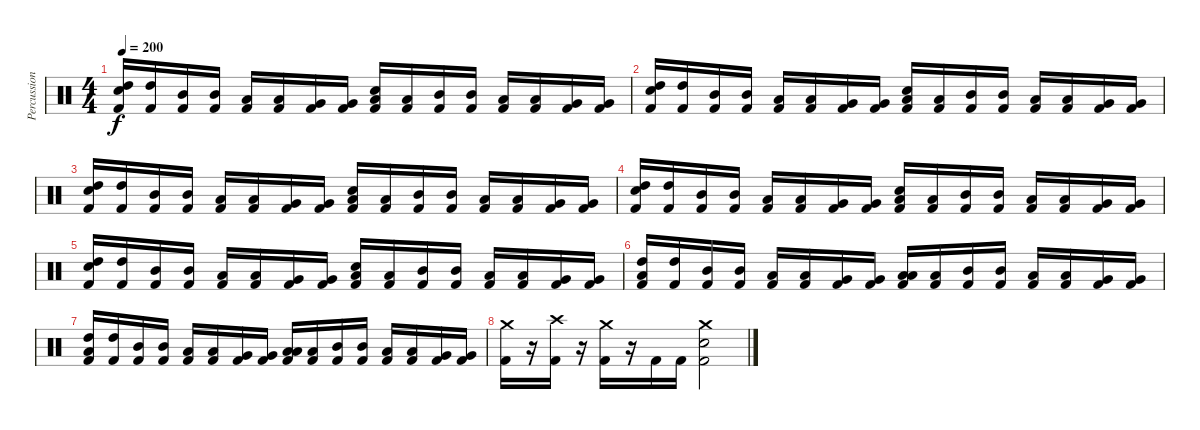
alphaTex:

\track ("Percussion" "Percussion") {instrument percussion}
\staff {score}
\articulation defaults
\ts (4 4)
\tempo 200
\clef neutral
\ks c
("High Tom (hit)" "Electric Snare (hit)" "Kick (hit) 2").16{dy f} ("High Tom (hit)" "Kick (hit) 2").16 ("Mid Tom (hit)" "Kick (hit) 2").16 ("Mid Tom (hit)" "Kick (hit) 2").16 ("Low Tom (hit)" "Kick (hit) 2").16 ("Low Tom (hit)" "Kick (hit) 2").16 ("Very Low Tom (hit)" "Kick (hit) 2").16 ("Very Low Tom (hit)" "Kick (hit) 2").16 ("Low Floor Tom (hit)" "Electric Snare (hit)" "Kick (hit) 2").16 ("Low Floor Tom (hit)" "Kick (hit) 2").16 ("Mid Tom (hit)" "Kick (hit) 2").16 ("Mid Tom (hit)" "Kick (hit) 2").16 ("Low Tom (hit)" "Kick (hit) 2").16 ("Low Tom (hit)" "Kick (hit) 2").16 ("Very Low Tom (hit)" "Kick (hit) 2").16 ("Very Low Tom (hit)" "Kick (hit) 2").16 |
("High Tom (hit)" "Electric Snare (hit)" "Kick (hit) 2").16 ("High Tom (hit)" "Kick (hit) 2").16 ("Mid Tom (hit)" "Kick (hit) 2").16 ("Mid Tom (hit)" "Kick (hit) 2").16 ("Low Tom (hit)" "Kick (hit) 2").16 ("Low Tom (hit)" "Kick (hit) 2").16 ("Very Low Tom (hit)" "Kick (hit) 2").16 ("Very Low Tom (hit)" "Kick (hit) 2").16 ("Low Floor Tom (hit)" "Electric Snare (hit)" "Kick (hit) 2").16 ("Low Floor Tom (hit)" "Kick (hit) 2").16 ("Mid Tom (hit)" "Kick (hit) 2").16 ("Mid Tom (hit)" "Kick (hit) 2").16 ("Low Tom (hit)" "Kick (hit) 2").16 ("Low Tom (hit)" "Kick (hit) 2").16 ("Very Low Tom (hit)" "Kick (hit) 2").16 ("Very Low Tom (hit)" "Kick (hit) 2").16 |
("High Tom (hit)" "Electric Snare (hit)" "Kick (hit) 2").16 ("High Tom (hit)" "Kick (hit) 2").16 ("Mid Tom (hit)" "Kick (hit) 2").16 ("Mid Tom (hit)" "Kick (hit) 2").16 ("Low Tom (hit)" "Kick (hit) 2").16 ("Low Tom (hit)" "Kick (hit) 2").16 ("Very Low Tom (hit)" "Kick (hit) 2").16 ("Very Low Tom (hit)" "Kick (hit) 2").16 ("Low Floor Tom (hit)" "Electric Snare (hit)" "Kick (hit) 2").16 ("Low Floor Tom (hit)" "Kick (hit) 2").16 ("Mid Tom (hit)" "Kick (hit) 2").16 ("Mid Tom (hit)" "Kick (hit) 2").16 ("Low Tom (hit)" "Kick (hit) 2").16 ("Low Tom (hit)" "Kick (hit) 2").16 ("Very Low Tom (hit)" "Kick (hit) 2").16 ("Very Low Tom (hit)" "Kick (hit) 2").16 |
("High Tom (hit)" "Electric Snare (hit)" "Kick (hit) 2").16 ("High Tom (hit)" "Kick (hit) 2").16 ("Mid Tom (hit)" "Kick (hit) 2").16 ("Mid Tom (hit)" "Kick (hit) 2").16 ("Low Tom (hit)" "Kick (hit) 2").16 ("Low Tom (hit)" "Kick (hit) 2").16 ("Very Low Tom (hit)" "Kick (hit) 2").16 ("Very Low Tom (hit)" "Kick (hit) 2").16 ("Low Floor Tom (hit)" "Electric Snare (hit)" "Kick (hit) 2").16 ("Low Floor Tom (hit)" "Kick (hit) 2").16 ("Mid Tom (hit)" "Kick (hit) 2").16 ("Mid Tom (hit)" "Kick (hit) 2").16 ("Low Tom (hit)" "Kick (hit) 2").16 ("Low Tom (hit)" "Kick (hit) 2").16 ("Very Low Tom (hit)" "Kick (hit) 2").16 ("Very Low Tom (hit)" "Kick (hit) 2").16 |
("High Tom (hit)" "Electric Snare (hit)" "Kick (hit) 2").16 ("High Tom (hit)" "Kick (hit) 2").16 ("Mid Tom (hit)" "Kick (hit) 2").16 ("Mid Tom (hit)" "Kick (hit) 2").16 ("Low Tom (hit)" "Kick (hit) 2").16 ("Low Tom (hit)" "Kick (hit) 2").16 ("Very Low Tom (hit)" "Kick (hit) 2").16 ("Very Low Tom (hit)" "Kick (hit) 2").16 ("Low Floor Tom (hit)" "Electric Snare (hit)" "Kick (hit) 2").16 ("Low Floor Tom (hit)" "Kick (hit) 2").16 ("Mid Tom (hit)" "Kick (hit) 2").16 ("Mid Tom (hit)" "Kick (hit) 2").16 ("Low Tom (hit)" "Kick (hit) 2").16 ("Low Tom (hit)" "Kick (hit) 2").16 ("Very Low Tom (hit)" "Kick (hit) 2").16 ("Very Low Tom (hit)" "Kick (hit) 2").16 |
("High Tom (hit)" "Low Floor Tom (hit)" "Kick (hit) 2").16 ("High Tom (hit)" "Kick (hit) 2").16 ("Mid Tom (hit)" "Kick (hit) 2").16 ("Mid Tom (hit)" "Kick (hit) 2").16 ("Low Tom (hit)" "Kick (hit) 2").16 ("Low Tom (hit)" "Kick (hit) 2").16 ("Very Low Tom (hit)" "Kick (hit) 2").16 ("Very Low Tom (hit)" "Kick (hit) 2").16 ("Low Floor Tom (hit)" "Low Floor Tom (hit)" "Kick (hit) 2").16 ("Low Floor Tom (hit)" "Kick (hit) 2").16 ("Mid Tom (hit)" "Kick (hit) 2").16 ("Mid Tom (hit)" "Kick (hit) 2").16 ("Low Tom (hit)" "Kick (hit) 2").16 ("Low Tom (hit)" "Kick (hit) 2").16 ("Very Low Tom (hit)" "Kick (hit) 2").16 ("Very Low Tom (hit)" "Kick (hit) 2").16 |
("High Tom (hit)" "Low Floor Tom (hit)" "Kick (hit) 2").16 ("High Tom (hit)" "Kick (hit) 2").16 ("Mid Tom (hit)" "Kick (hit) 2").16 ("Mid Tom (hit)" "Kick (hit) 2").16 ("Low Tom (hit)" "Kick (hit) 2").16 ("Low Tom (hit)" "Kick (hit) 2").16 ("Very Low Tom (hit)" "Kick (hit) 2").16 ("Very Low Tom (hit)" "Kick (hit) 2").16 ("Low Floor Tom (hit)" "Low Floor Tom (hit)" "Kick (hit) 2").16 ("Low Floor Tom (hit)" "Kick (hit) 2").16 ("Mid Tom (hit)" "Kick (hit) 2").16 ("Mid Tom (hit)" "Kick (hit) 2").16 ("Low Tom (hit)" "Kick (hit) 2").16 ("Low Tom (hit)" "Kick (hit) 2").16 ("Very Low Tom (hit)" "Kick (hit) 2").16 ("Very Low Tom (hit)" "Kick (hit) 2").16 |
("Crash medium (hit)" "Kick (hit) 2").16 r.16 ("Crash high (hit)" "Kick (hit) 2").16 r.16 ("Crash medium (hit)" "Kick (hit) 2").16 r.16 "Kick (hit) 2".16 "Kick (hit) 2".16 ("Crash medium (hit)" "Electric Snare (hit)" "Kick (hit) 2").2
